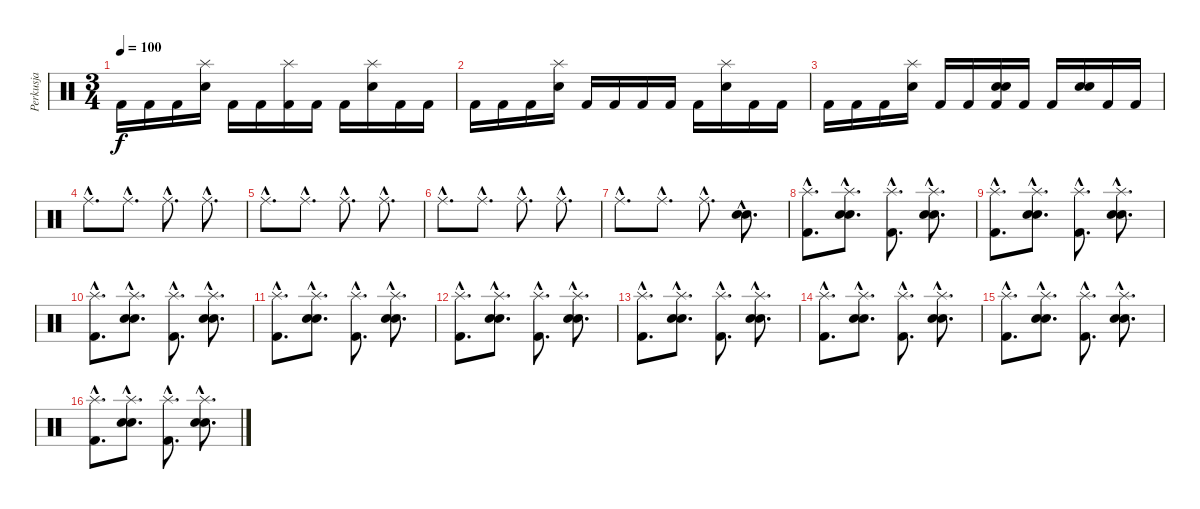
\track ("Perkusja" "Perkusja") {instrument percussion}
\staff {score}
\articulation defaults
\ts (3 4)
\tempo 100
\clef neutral
\ks c "Kick (hit) 2".16{dy f} "Kick (hit) 2".16 "Kick (hit) 2".16
("Splash (hit)" "Snare (hit) 2").16 "Kick (hit) 2".16 "Kick (hit) 2".16 ("Splash (hit)" "Kick (hit) 2").16 "Kick (hit) 2".16 "Kick (hit) 2".16 ("Splash (hit)" "Snare (hit) 2").16 "Kick (hit) 2".16 "Kick (hit) 2".16 |
"Kick (hit) 2".16 "Kick (hit) 2".16 "Kick (hit) 2".16 ("Splash (hit)" "Snare (hit) 2").16 "Kick (hit) 2".16 "Kick (hit) 2".16 "Kick (hit) 2".16 "Kick (hit) 2".16 "Kick (hit) 2".16 ("Splash (hit)" "Snare (hit) 2").16 "Kick (hit) 2".16 "Kick (hit) 2".16 |
"Kick (hit) 2".16 "Kick (hit) 2".16 "Kick (hit) 2".16 ("Splash (hit)" "Snare (hit) 2").16 "Kick (hit) 2".16 "Kick (hit) 2".16 ("Snare (hit) 2" "Snare (hit) 2" "Kick (hit) 2").16 "Kick (hit) 2".16 "Kick (hit) 2".16 ("Snare (hit) 2" "Snare (hit) 2").16 "Kick (hit) 2".16 "Kick (hit) 2".16 |
"Ride (middle)"{hac}.8{d} "Ride (middle)"{hac}.8{d} "Ride (middle)"{hac}.8{d} "Ride (middle)"{hac}.8{d} |
"Ride (middle)"{hac}.8{d} "Ride (middle)"{hac}.8{d} "Ride (middle)"{hac}.8{d} "Ride (middle)"{hac}.8{d} |
"Ride (middle)"{hac}.8{d} "Ride (middle)"{hac}.8{d} "Ride (middle)"{hac}.8{d} "Ride (middle)"{hac}.8{d} |
"Ride (middle)"{hac}.8{d} "Ride (middle)"{hac}.8{d} "Ride (middle)"{hac}.8{d} ("Snare (hit) 2"{hac} "Snare (hit) 2"{hac}).8{d} |
("Splash (hit)"{hac} "Kick (hit) 2"{hac}).8{d} ("Splash (hit)"{hac} "Snare (hit) 2"{hac} "Snare (hit) 2"{hac}).8{d} ("Splash (hit)"{hac} "Kick (hit) 2"{hac}).8{d} ("Splash (hit)"{hac} "Snare (hit) 2"{hac} "Snare (hit) 2"{hac}).8{d} |
("Splash (hit)"{hac} "Kick (hit) 2"{hac}).8{d} ("Splash (hit)"{hac} "Snare (hit) 2"{hac} "Snare (hit) 2"{hac}).8{d} ("Splash (hit)"{hac} "Kick (hit) 2"{hac}).8{d} ("Splash (hit)"{hac} "Snare (hit) 2"{hac} "Snare (hit) 2"{hac}).8{d} |
("Splash (hit)"{hac} "Kick (hit) 2"{hac}).8{d} ("Splash (hit)"{hac} "Snare (hit) 2"{hac} "Snare (hit) 2"{hac}).8{d} ("Splash (hit)"{hac} "Kick (hit) 2"{hac}).8{d} ("Splash (hit)"{hac} "Snare (hit) 2"{hac} "Snare (hit) 2"{hac}).8{d} |
("Splash (hit)"{hac} "Kick (hit) 2"{hac}).8{d} ("Splash (hit)"{hac} "Snare (hit) 2"{hac} "Snare (hit) 2"{hac}).8{d} ("Splash (hit)"{hac} "Kick (hit) 2"{hac}).8{d} ("Splash (hit)"{hac} "Snare (hit) 2"{hac} "Snare (hit) 2"{hac}).8{d} |
("Splash (hit)"{hac} "Kick (hit) 2"{hac}).8{d} ("Splash (hit)"{hac} "Snare (hit) 2"{hac} "Snare (hit) 2"{hac}).8{d} ("Splash (hit)"{hac} "Kick (hit) 2"{hac}).8{d} ("Splash (hit)"{hac} "Snare (hit) 2"{hac} "Snare (hit) 2"{hac}).8{d} |
("Splash (hit)"{hac} "Kick (hit) 2"{hac}).8{d} ("Splash (hit)"{hac} "Snare (hit) 2"{hac} "Snare (hit) 2"{hac}).8{d} ("Splash (hit)"{hac} "Kick (hit) 2"{hac}).8{d} ("Splash (hit)"{hac} "Snare (hit) 2"{hac} "Snare (hit) 2"{hac}).8{d} |
("Splash (hit)"{hac} "Kick (hit) 2"{hac}).8{d} ("Splash (hit)"{hac} "Snare (hit) 2"{hac} "Snare (hit) 2"{hac}).8{d} ("Splash (hit)"{hac} "Kick (hit) 2"{hac}).8{d} ("Splash (hit)"{hac} "Snare (hit) 2"{hac} "Snare (hit) 2"{hac}).8{d} |
("Splash (hit)"{hac} "Kick (hit) 2"{hac}).8{d} ("Splash (hit)"{hac} "Snare (hit) 2"{hac} "Snare (hit) 2"{hac}).8{d} ("Splash (hit)"{hac} "Kick (hit) 2"{hac}).8{d} ("Splash (hit)"{hac} "Snare (hit) 2"{hac} "Snare (hit) 2"{hac}).8{d} |
("Splash (hit)"{hac} "Kick (hit) 2"{hac}).8{d} ("Splash (hit)"{hac} "Snare (hit) 2"{hac} "Snare (hit) 2"{hac}).8{d} ("Splash (hit)"{hac} "Kick (hit) 2"{hac}).8{d} ("Splash (hit)"{hac} "Snare (hit) 2"{hac} "Snare (hit) 2"{hac}).8{d}
